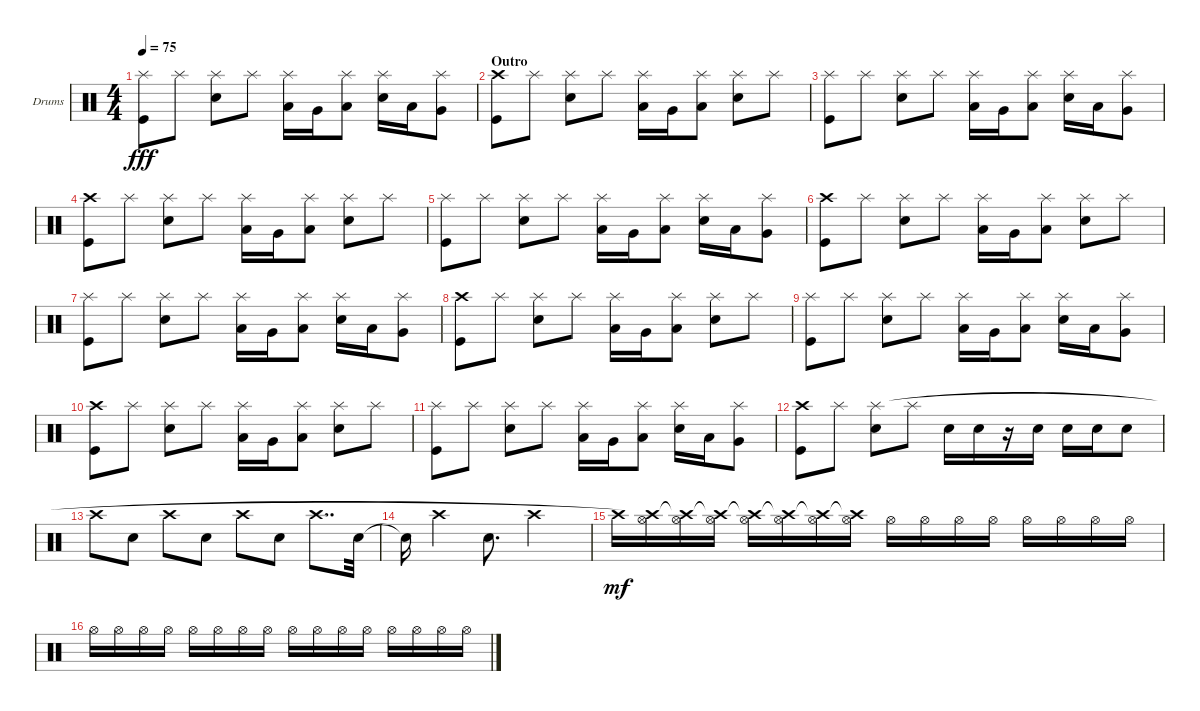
\defaultSystemsLayout 4
\bracketExtendMode groupsimilarinstruments
\firstSystemTrackNameOrientation horizontal
\otherSystemsTrackNameOrientation horizontal
\track ("Craig Nunenmacher" "Drums") {instrument percussion}
\staff {score}
\articulation defaults
\ts (4 4)
\tempo 75
\clef neutral
\ks c
("Kick (hit)" "Splash (hit)").8{dy fff} "Splash (hit)".8 ("Snare (hit) 2" "Splash (hit)").8 "Splash (hit)".8 ("Low Tom (hit)" "Splash (hit)").16 "Very Low Tom (hit)".16 ("Low Tom (hit)" "Splash (hit)").8 ("Snare (hit) 2" "Splash (hit)").16 "Low Tom (hit)".16 ("Very Low Tom (hit)" "Splash (hit)").8 |
\section ("" "Outro")
("Kick (hit)" "Crash high (hit)").8 "Splash (hit)".8 ("Snare (hit) 2" "Splash (hit)").8 "Splash (hit)".8 ("Low Tom (hit)" "Splash (hit)").16 "Very Low Tom (hit)".16 ("Low Tom (hit)" "Splash (hit)").8 ("Snare (hit) 2" "Splash (hit)").8 "Splash (hit)".8 |
("Kick (hit)" "Splash (hit)").8 "Splash (hit)".8 ("Snare (hit) 2" "Splash (hit)").8 "Splash (hit)".8 ("Low Tom (hit)" "Splash (hit)").16 "Very Low Tom (hit)".16 ("Low Tom (hit)" "Splash (hit)").8 ("Snare (hit) 2" "Splash (hit)").16 "Low Tom (hit)".16 ("Very Low Tom (hit)" "Splash (hit)").8 |
("Kick (hit)" "Crash high (hit)").8 "Splash (hit)".8 ("Snare (hit) 2" "Splash (hit)").8 "Splash (hit)".8 ("Low Tom (hit)" "Splash (hit)").16 "Very Low Tom (hit)".16 ("Low Tom (hit)" "Splash (hit)").8 ("Snare (hit) 2" "Splash (hit)").8 "Splash (hit)".8 |
("Kick (hit)" "Splash (hit)").8 "Splash (hit)".8 ("Snare (hit) 2" "Splash (hit)").8 "Splash (hit)".8 ("Low Tom (hit)" "Splash (hit)").16 "Very Low Tom (hit)".16 ("Low Tom (hit)" "Splash (hit)").8 ("Snare (hit) 2" "Splash (hit)").16 "Low Tom (hit)".16 ("Very Low Tom (hit)" "Splash (hit)").8 |
("Kick (hit)" "Crash high (hit)").8 "Splash (hit)".8 ("Snare (hit) 2" "Splash (hit)").8 "Splash (hit)".8 ("Low Tom (hit)" "Splash (hit)").16 "Very Low Tom (hit)".16 ("Low Tom (hit)" "Splash (hit)").8 ("Snare (hit) 2" "Splash (hit)").8 "Splash (hit)".8 |
("Kick (hit)" "Splash (hit)").8 "Splash (hit)".8 ("Snare (hit) 2" "Splash (hit)").8 "Splash (hit)".8 ("Low Tom (hit)" "Splash (hit)").16 "Very Low Tom (hit)".16 ("Low Tom (hit)" "Splash (hit)").8 ("Snare (hit) 2" "Splash (hit)").16 "Low Tom (hit)".16 ("Very Low Tom (hit)" "Splash (hit)").8 |
("Kick (hit)" "Crash high (hit)").8 "Splash (hit)".8 ("Snare (hit) 2" "Splash (hit)").8 "Splash (hit)".8 ("Low Tom (hit)" "Splash (hit)").16 "Very Low Tom (hit)".16 ("Low Tom (hit)" "Splash (hit)").8 ("Snare (hit) 2" "Splash (hit)").8 "Splash (hit)".8 |
("Kick (hit)" "Splash (hit)").8 "Splash (hit)".8 ("Snare (hit) 2" "Splash (hit)").8 "Splash (hit)".8 ("Low Tom (hit)" "Splash (hit)").16 "Very Low Tom (hit)".16 ("Low Tom (hit)" "Splash (hit)").8 ("Snare (hit) 2" "Splash (hit)").16 "Low Tom (hit)".16 ("Very Low Tom (hit)" "Splash (hit)").8 |
("Kick (hit)" "Crash high (hit)").8 "Splash (hit)".8 ("Snare (hit) 2" "Splash (hit)").8 "Splash (hit)".8 ("Low Tom (hit)" "Splash (hit)").16 "Very Low Tom (hit)".16 ("Low Tom (hit)" "Splash (hit)").8 ("Snare (hit) 2" "Splash (hit)").8 "Splash (hit)".8 |
("Kick (hit)" "Splash (hit)").8 "Splash (hit)".8 ("Snare (hit) 2" "Splash (hit)").8 "Splash (hit)".8 ("Low Tom (hit)" "Splash (hit)").16 "Very Low Tom (hit)".16 ("Low Tom (hit)" "Splash (hit)").8 ("Snare (hit) 2" "Splash (hit)").16 "Low Tom (hit)".16 ("Very Low Tom (hit)" "Splash (hit)").8 |
("Kick (hit)" "Crash high (hit)").8 "Splash (hit)".8 ("Snare (hit) 2" "Splash (hit)").8 "Splash (hit)".8 "Snare (hit) 2".16 "Snare (hit) 2".16 r.16 "Snare (hit) 2".16 "Snare (hit) 2".16 "Snare (hit) 2".16 "Snare (hit) 2".8 |
"Crash high (hit)".8 "Snare (hit) 2".8 "Crash high (hit)".8 "Snare (hit) 2".8 "Crash high (hit)".8 "Snare (hit) 2".8 "Crash high (hit)".8{dd} "Snare (hit) 2".32 |
"Snare (hit) 2"{t}.16 "Crash high (hit)".4 "Snare (hit) 2".8{d} "Crash high (hit)".2 |
"Crash high (hit)".16{dy mf} ("Hi-Hat (open)" "Crash high (hit)"{t}).16 ("Hi-Hat (open)" "Crash high (hit)"{t}).16 ("Hi-Hat (open)" "Crash high (hit)"{t}).16 ("Hi-Hat (open)" "Crash high (hit)"{t}).16 ("Hi-Hat (open)" "Crash high (hit)"{t}).16 ("Hi-Hat (open)" "Crash high (hit)"{t}).16 ("Hi-Hat (open)" "Crash high (hit)"{t}).16 "Hi-Hat (open)".16 "Hi-Hat (open)".16 "Hi-Hat (open)".16 "Hi-Hat (open)".16 "Hi-Hat (open)".16 "Hi-Hat (open)".16 "Hi-Hat (open)".16 "Hi-Hat (open)".16 |
"Hi-Hat (open)".16 "Hi-Hat (open)".16 "Hi-Hat (open)".16 "Hi-Hat (open)".16 "Hi-Hat (open)".16 "Hi-Hat (open)".16 "Hi-Hat (open)".16 "Hi-Hat (open)".16 "Hi-Hat (open)".16 "Hi-Hat (open)".16 "Hi-Hat (open)".16 "Hi-Hat (open)".16 "Hi-Hat (open)".16 "Hi-Hat (open)".16 "Hi-Hat (open)".16 "Hi-Hat (open)".16
